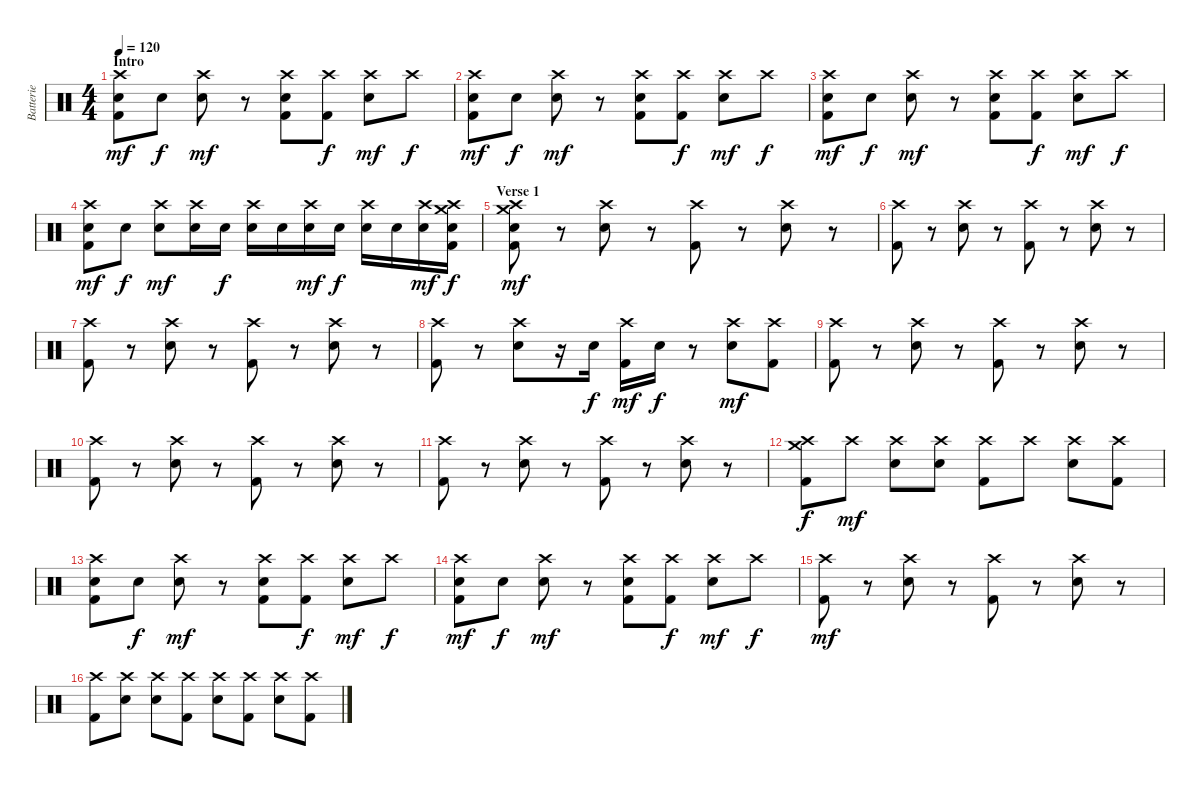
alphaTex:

\track ("Batterie" "Batterie") {instrument percussion}
\staff {score}
\articulation defaults
\ts (4 4)
\section ("" "Intro")
\tempo 120
\clef neutral
\ks c
("Crash high (hit)" "Electric Snare (hit)" "Kick (hit) 2").8{dy mf} "Electric Snare (hit)".8{dy f} ("Crash high (hit)" "Electric Snare (hit)").8{dy mf} r.8 ("Crash high (hit)" "Electric Snare (hit)" "Kick (hit) 2").8 ("Crash high (hit)" "Kick (hit) 2").8{dy f} ("Crash high (hit)" "Electric Snare (hit)").8{dy mf} "Crash high (hit)".8{dy f} |
("Crash high (hit)" "Electric Snare (hit)" "Kick (hit) 2").8{dy mf} "Electric Snare (hit)".8{dy f} ("Crash high (hit)" "Electric Snare (hit)").8{dy mf} r.8 ("Crash high (hit)" "Electric Snare (hit)" "Kick (hit) 2").8 ("Crash high (hit)" "Kick (hit) 2").8{dy f} ("Crash high (hit)" "Electric Snare (hit)").8{dy mf} "Crash high (hit)".8{dy f} |
("Crash high (hit)" "Electric Snare (hit)" "Kick (hit) 2").8{dy mf} "Electric Snare (hit)".8{dy f} ("Crash high (hit)" "Electric Snare (hit)").8{dy mf} r.8 ("Crash high (hit)" "Electric Snare (hit)" "Kick (hit) 2").8 ("Crash high (hit)" "Kick (hit) 2").8{dy f} ("Crash high (hit)" "Electric Snare (hit)").8{dy mf} "Crash high (hit)".8{dy f} |
("Crash high (hit)" "Electric Snare (hit)" "Kick (hit) 2").8{dy mf} "Electric Snare (hit)".8{dy f} ("Crash high (hit)" "Electric Snare (hit)").8{dy mf} ("Crash high (hit)" "Electric Snare (hit)").16 "Electric Snare (hit)".16{dy f} ("Crash high (hit)" "Electric Snare (hit)").16 "Electric Snare (hit)".16 ("Crash high (hit)" "Electric Snare (hit)").16{dy mf} "Electric Snare (hit)".16{dy f} ("Crash high (hit)" "Electric Snare (hit)").16 "Electric Snare (hit)".16 ("Crash high (hit)" "Electric Snare (hit)").16{dy mf} ("Crash high (hit)" "Crash medium (hit)" "Electric Snare (hit)" "Kick (hit) 2").16{dy f} |
\section ("" "Verse 1")
("Crash high (hit)" "Crash medium (hit)" "Electric Snare (hit)" "Kick (hit) 2").8{dy mf} r.8 ("Crash high (hit)" "Electric Snare (hit)").8 r.8 ("Crash high (hit)" "Kick (hit) 2").8 r.8 ("Crash high (hit)" "Electric Snare (hit)").8 r.8 |
("Crash high (hit)" "Kick (hit) 2").8 r.8 ("Crash high (hit)" "Electric Snare (hit)").8 r.8 ("Crash high (hit)" "Kick (hit) 2").8 r.8 ("Crash high (hit)" "Electric Snare (hit)").8 r.8 |
("Crash high (hit)" "Kick (hit) 2").8 r.8 ("Crash high (hit)" "Electric Snare (hit)").8 r.8 ("Crash high (hit)" "Kick (hit) 2").8 r.8 ("Crash high (hit)" "Electric Snare (hit)").8 r.8 |
("Crash high (hit)" "Kick (hit) 2").8 r.8 ("Crash high (hit)" "Electric Snare (hit)").8 r.16 "Electric Snare (hit)".16{dy f} ("Crash high (hit)" "Kick (hit) 2").16{dy mf} "Electric Snare (hit)".16{dy f} r.8 ("Crash high (hit)" "Electric Snare (hit)").8{dy mf} ("Crash high (hit)" "Kick (hit) 2").8 |
("Crash high (hit)" "Kick (hit) 2").8 r.8 ("Crash high (hit)" "Electric Snare (hit)").8 r.8 ("Crash high (hit)" "Kick (hit) 2").8 r.8 ("Crash high (hit)" "Electric Snare (hit)").8 r.8 |
("Crash high (hit)" "Kick (hit) 2").8 r.8 ("Crash high (hit)" "Electric Snare (hit)").8 r.8 ("Crash high (hit)" "Kick (hit) 2").8 r.8 ("Crash high (hit)" "Electric Snare (hit)").8 r.8 |
("Crash high (hit)" "Kick (hit) 2").8 r.8 ("Crash high (hit)" "Electric Snare (hit)").8 r.8 ("Crash high (hit)" "Kick (hit) 2").8 r.8 ("Crash high (hit)" "Electric Snare (hit)").8 r.8 |
("Crash high (hit)" "Crash medium (hit)" "Kick (hit) 2").8{dy f} "Crash high (hit)".8{dy mf} ("Crash high (hit)" "Electric Snare (hit)").8 ("Crash high (hit)" "Electric Snare (hit)").8 ("Crash high (hit)" "Kick (hit) 2").8 "Crash high (hit)".8 ("Crash high (hit)" "Electric Snare (hit)").8 ("Crash high (hit)" "Kick (hit) 2").8 |
("Crash high (hit)" "Electric Snare (hit)" "Kick (hit) 2").8 "Electric Snare (hit)".8{dy f} ("Crash high (hit)" "Electric Snare (hit)").8{dy mf} r.8 ("Crash high (hit)" "Electric Snare (hit)" "Kick (hit) 2").8 ("Crash high (hit)" "Kick (hit) 2").8{dy f} ("Crash high (hit)" "Electric Snare (hit)").8{dy mf} "Crash high (hit)".8{dy f} |
("Crash high (hit)" "Electric Snare (hit)" "Kick (hit) 2").8{dy mf} "Electric Snare (hit)".8{dy f} ("Crash high (hit)" "Electric Snare (hit)").8{dy mf} r.8 ("Crash high (hit)" "Electric Snare (hit)" "Kick (hit) 2").8 ("Crash high (hit)" "Kick (hit) 2").8{dy f} ("Crash high (hit)" "Electric Snare (hit)").8{dy mf} "Crash high (hit)".8{dy f} |
("Crash high (hit)" "Kick (hit) 2").8{dy mf} r.8 ("Crash high (hit)" "Electric Snare (hit)").8 r.8 ("Crash high (hit)" "Kick (hit) 2").8 r.8 ("Crash high (hit)" "Electric Snare (hit)").8 r.8 |
("Crash high (hit)" "Kick (hit) 2").8 ("Crash high (hit)" "Electric Snare (hit)").8 ("Crash high (hit)" "Electric Snare (hit)").8 ("Crash high (hit)" "Kick (hit) 2").8 ("Crash high (hit)" "Electric Snare (hit)").8 ("Crash high (hit)" "Kick (hit) 2").8 ("Crash high (hit)" "Electric Snare (hit)").8 ("Crash high (hit)" "Kick (hit) 2").8
